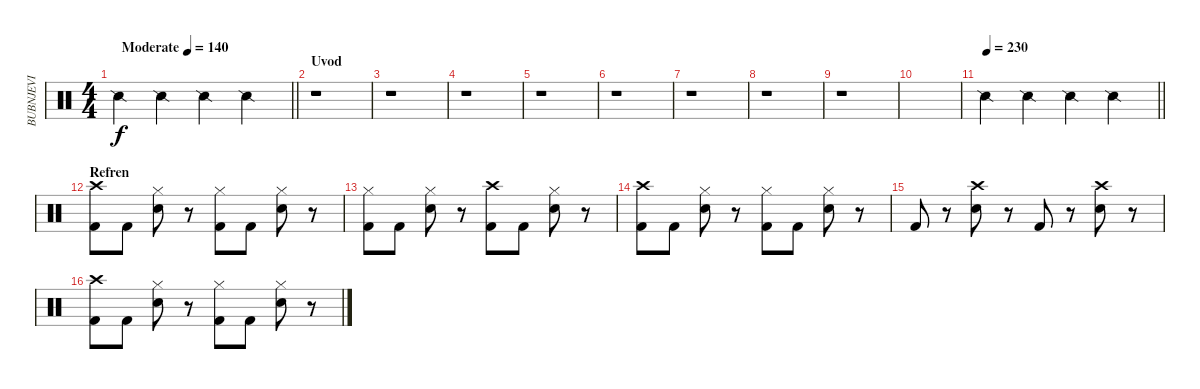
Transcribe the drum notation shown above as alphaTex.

\track ("BUBNJEVI" "BUBNJEVI") {instrument percussion}
\staff {score}
\articulation defaults
\ts (4 4)
\tempo (140 "Moderate")
\clef neutral
\barLineRight lightlight
\ks c "Snare (side stick) 2".4{dy f} "Snare (side stick) 2".4 "Snare (side stick) 2".4 "Snare (side stick) 2".4
|
\section ("" "Uvod")
r.1 |
r.1 |
r.1 |
r.1 |
r.1 |
r.1 |
r.1 |
r.1 |
|
\tempo 230
\barLineRight lightlight "Snare (side stick) 2".4 "Snare (side stick) 2".4 "Snare (side stick) 2".4 "Snare (side stick) 2".4
|
\section ("" "Refren")
("Crash high (hit)" "Kick (hit) 2").8 "Kick (hit) 2".8 ("Hi-Hat (closed)" "Snare (hit) 2").8 r.8 ("Hi-Hat (closed)" "Kick (hit) 2").8 "Kick (hit) 2".8 ("Hi-Hat (closed)" "Snare (hit) 2").8 r.8 |
("Hi-Hat (closed)" "Kick (hit) 2").8 "Kick (hit) 2".8 ("Hi-Hat (closed)" "Snare (hit) 2").8 r.8 ("Crash high (hit)" "Kick (hit) 2").8 "Kick (hit) 2".8 ("Hi-Hat (closed)" "Snare (hit) 2").8 r.8 |
("Crash high (hit)" "Kick (hit) 2").8 "Kick (hit) 2".8 ("Hi-Hat (closed)" "Snare (hit) 2").8 r.8 ("Hi-Hat (closed)" "Kick (hit) 2").8 "Kick (hit) 2".8 ("Hi-Hat (closed)" "Snare (hit) 2").8 r.8 |
"Kick (hit) 2".8 r.8 ("Crash high (hit)" "Snare (hit) 2").8 r.8 "Kick (hit) 2".8 r.8 ("Crash high (hit)" "Snare (hit) 2").8 r.8 |
("Crash high (hit)" "Kick (hit) 2").8 "Kick (hit) 2".8 ("Hi-Hat (closed)" "Snare (hit) 2").8 r.8 ("Hi-Hat (closed)" "Kick (hit) 2").8 "Kick (hit) 2".8 ("Hi-Hat (closed)" "Snare (hit) 2").8 r.8
